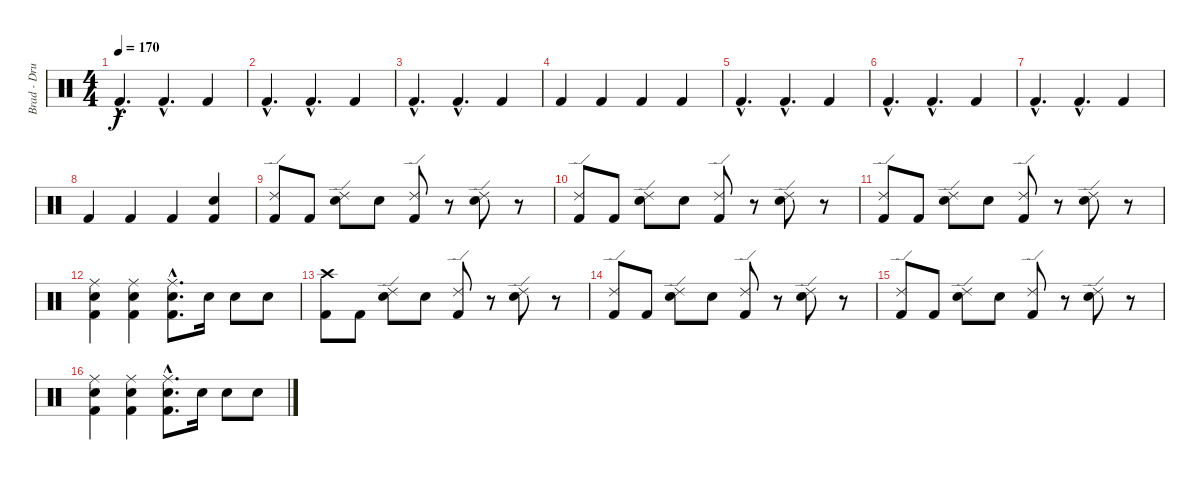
\track ("Brad - Drums" "Brad - Dru") {instrument percussion}
\staff {score}
\articulation defaults
\ts (4 4)
\tempo 170
\clef neutral
\ks c "Kick (hit) 2"{hac}.4{d dy f} "Kick (hit) 2"{hac}.4{d} "Kick (hit) 2".4
|
"Kick (hit) 2"{hac}.4{d} "Kick (hit) 2"{hac}.4{d} "Kick (hit) 2".4 |
"Kick (hit) 2"{hac}.4{d} "Kick (hit) 2"{hac}.4{d} "Kick (hit) 2".4 |
"Kick (hit) 2".4 "Kick (hit) 2".4 "Kick (hit) 2".4 "Kick (hit) 2".4 |
"Kick (hit) 2"{hac}.4{d} "Kick (hit) 2"{hac}.4{d} "Kick (hit) 2".4 |
"Kick (hit) 2"{hac}.4{d} "Kick (hit) 2"{hac}.4{d} "Kick (hit) 2".4 |
"Kick (hit) 2"{hac}.4{d} "Kick (hit) 2"{hac}.4{d} "Kick (hit) 2".4 |
"Kick (hit) 2".4 "Kick (hit) 2".4 "Kick (hit) 2".4 ("Electric Snare (hit)" "Kick (hit) 2").4 |
("Ride (edge) 2" "Kick (hit) 2").8 "Kick (hit) 2".8 ("Ride (edge) 2" "Electric Snare (hit)").8 "Electric Snare (hit)".8 ("Ride (edge) 2" "Kick (hit) 2").8 r.8 ("Ride (edge) 2" "Electric Snare (hit)").8 r.8 |
("Ride (edge) 2" "Kick (hit) 2").8 "Kick (hit) 2".8 ("Ride (edge) 2" "Electric Snare (hit)").8 "Electric Snare (hit)".8 ("Ride (edge) 2" "Kick (hit) 2").8 r.8 ("Ride (edge) 2" "Electric Snare (hit)").8 r.8 |
("Ride (edge) 2" "Kick (hit) 2").8 "Kick (hit) 2".8 ("Ride (edge) 2" "Electric Snare (hit)").8 "Electric Snare (hit)".8 ("Ride (edge) 2" "Kick (hit) 2").8 r.8 ("Ride (edge) 2" "Electric Snare (hit)").8 r.8 |
("Ride (middle)" "Electric Snare (hit)" "Kick (hit) 2").4 ("Ride (middle)" "Electric Snare (hit)" "Kick (hit) 2").4 ("Ride (middle)"{hac} "Electric Snare (hit)"{hac} "Kick (hit) 2"{hac}).8{d} "Electric Snare (hit)".16 "Electric Snare (hit)".8 "Electric Snare (hit)".8 |
("Crash high (hit)" "Kick (hit) 2").8 "Kick (hit) 2".8 ("Ride (edge) 2" "Electric Snare (hit)").8 "Electric Snare (hit)".8 ("Ride (edge) 2" "Kick (hit) 2").8 r.8 ("Ride (edge) 2" "Electric Snare (hit)").8 r.8 |
("Ride (edge) 2" "Kick (hit) 2").8 "Kick (hit) 2".8 ("Ride (edge) 2" "Electric Snare (hit)").8 "Electric Snare (hit)".8 ("Ride (edge) 2" "Kick (hit) 2").8 r.8 ("Ride (edge) 2" "Electric Snare (hit)").8 r.8 |
("Ride (edge) 2" "Kick (hit) 2").8 "Kick (hit) 2".8 ("Ride (edge) 2" "Electric Snare (hit)").8 "Electric Snare (hit)".8 ("Ride (edge) 2" "Kick (hit) 2").8 r.8 ("Ride (edge) 2" "Electric Snare (hit)").8 r.8 |
("Ride (middle)" "Electric Snare (hit)" "Kick (hit) 2").4 ("Ride (middle)" "Electric Snare (hit)" "Kick (hit) 2").4 ("Ride (middle)"{hac} "Electric Snare (hit)"{hac} "Kick (hit) 2"{hac}).8{d} "Electric Snare (hit)".16 "Electric Snare (hit)".8 "Electric Snare (hit)".8
